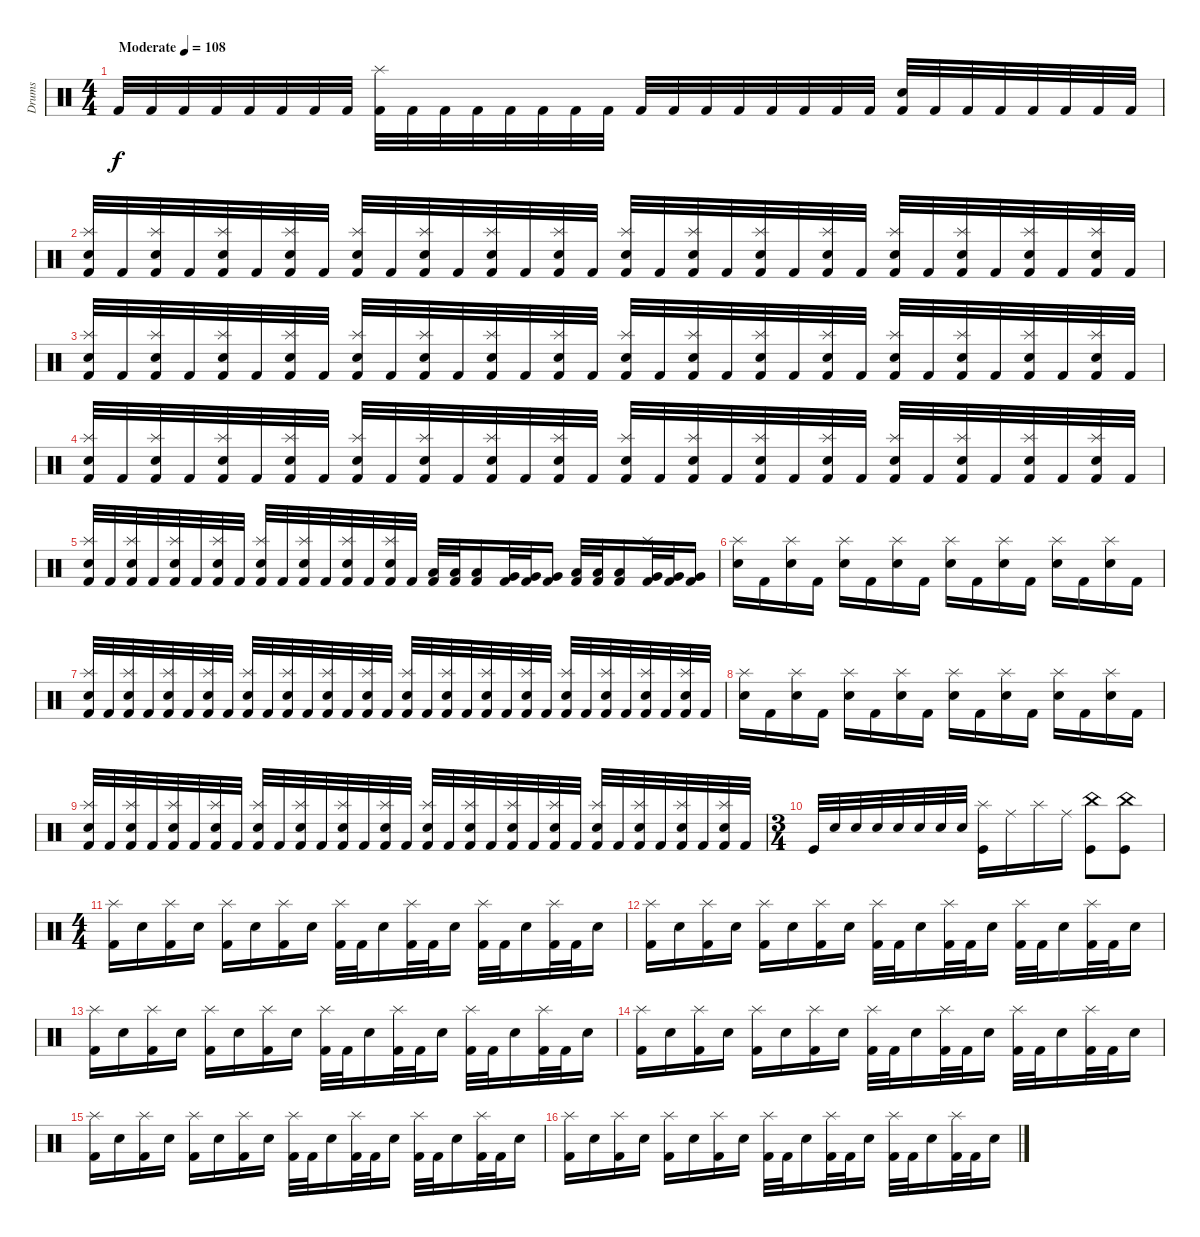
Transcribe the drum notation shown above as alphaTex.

\track ("Drums" "Drums") {instrument percussion}
\staff {score}
\articulation defaults
\ts (4 4)
\tempo (108 "Moderate")
\clef neutral
\ks c "Kick (hit) 2".32{dy f} "Kick (hit) 2".32 "Kick (hit) 2".32 "Kick (hit) 2".32 "Kick (hit) 2".32 "Kick (hit) 2".32 "Kick (hit) 2".32 "Kick (hit) 2".32
("Splash (hit)" "Kick (hit) 2").32 "Kick (hit) 2".32 "Kick (hit) 2".32 "Kick (hit) 2".32 "Kick (hit) 2".32 "Kick (hit) 2".32 "Kick (hit) 2".32 "Kick (hit) 2".32 "Kick (hit) 2".32 "Kick (hit) 2".32 "Kick (hit) 2".32 "Kick (hit) 2".32 "Kick (hit) 2".32 "Kick (hit) 2".32 "Kick (hit) 2".32 "Kick (hit) 2".32 ("Snare (hit) 2" "Kick (hit) 2").32 "Kick (hit) 2".32 "Kick (hit) 2".32 "Kick (hit) 2".32 "Kick (hit) 2".32 "Kick (hit) 2".32 "Kick (hit) 2".32 "Kick (hit) 2".32 |
("Splash (hit)" "Snare (hit) 2" "Kick (hit) 2").32 "Kick (hit) 2".32 ("Splash (hit)" "Snare (hit) 2" "Kick (hit) 2").32 "Kick (hit) 2".32 ("Splash (hit)" "Snare (hit) 2" "Kick (hit) 2").32 "Kick (hit) 2".32 ("Splash (hit)" "Snare (hit) 2" "Kick (hit) 2").32 "Kick (hit) 2".32 ("Splash (hit)" "Snare (hit) 2" "Kick (hit) 2").32 "Kick (hit) 2".32 ("Splash (hit)" "Snare (hit) 2" "Kick (hit) 2").32 "Kick (hit) 2".32 ("Splash (hit)" "Snare (hit) 2" "Kick (hit) 2").32 "Kick (hit) 2".32 ("Splash (hit)" "Snare (hit) 2" "Kick (hit) 2").32 "Kick (hit) 2".32 ("Splash (hit)" "Snare (hit) 2" "Kick (hit) 2").32 "Kick (hit) 2".32 ("Splash (hit)" "Snare (hit) 2" "Kick (hit) 2").32 "Kick (hit) 2".32 ("Splash (hit)" "Snare (hit) 2" "Kick (hit) 2").32 "Kick (hit) 2".32 ("Splash (hit)" "Snare (hit) 2" "Kick (hit) 2").32 "Kick (hit) 2".32 ("Splash (hit)" "Snare (hit) 2" "Kick (hit) 2").32 "Kick (hit) 2".32 ("Splash (hit)" "Snare (hit) 2" "Kick (hit) 2").32 "Kick (hit) 2".32 ("Splash (hit)" "Snare (hit) 2" "Kick (hit) 2").32 "Kick (hit) 2".32 ("Splash (hit)" "Snare (hit) 2" "Kick (hit) 2").32 "Kick (hit) 2".32 |
("Splash (hit)" "Snare (hit) 2" "Kick (hit) 2").32 "Kick (hit) 2".32 ("Splash (hit)" "Snare (hit) 2" "Kick (hit) 2").32 "Kick (hit) 2".32 ("Splash (hit)" "Snare (hit) 2" "Kick (hit) 2").32 "Kick (hit) 2".32 ("Splash (hit)" "Snare (hit) 2" "Kick (hit) 2").32 "Kick (hit) 2".32 ("Splash (hit)" "Snare (hit) 2" "Kick (hit) 2").32 "Kick (hit) 2".32 ("Splash (hit)" "Snare (hit) 2" "Kick (hit) 2").32 "Kick (hit) 2".32 ("Splash (hit)" "Snare (hit) 2" "Kick (hit) 2").32 "Kick (hit) 2".32 ("Splash (hit)" "Snare (hit) 2" "Kick (hit) 2").32 "Kick (hit) 2".32 ("Splash (hit)" "Snare (hit) 2" "Kick (hit) 2").32 "Kick (hit) 2".32 ("Splash (hit)" "Snare (hit) 2" "Kick (hit) 2").32 "Kick (hit) 2".32 ("Splash (hit)" "Snare (hit) 2" "Kick (hit) 2").32 "Kick (hit) 2".32 ("Splash (hit)" "Snare (hit) 2" "Kick (hit) 2").32 "Kick (hit) 2".32 ("Splash (hit)" "Snare (hit) 2" "Kick (hit) 2").32 "Kick (hit) 2".32 ("Splash (hit)" "Snare (hit) 2" "Kick (hit) 2").32 "Kick (hit) 2".32 ("Splash (hit)" "Snare (hit) 2" "Kick (hit) 2").32 "Kick (hit) 2".32 ("Splash (hit)" "Snare (hit) 2" "Kick (hit) 2").32 "Kick (hit) 2".32 |
("Splash (hit)" "Snare (hit) 2" "Kick (hit) 2").32 "Kick (hit) 2".32 ("Splash (hit)" "Snare (hit) 2" "Kick (hit) 2").32 "Kick (hit) 2".32 ("Splash (hit)" "Snare (hit) 2" "Kick (hit) 2").32 "Kick (hit) 2".32 ("Splash (hit)" "Snare (hit) 2" "Kick (hit) 2").32 "Kick (hit) 2".32 ("Splash (hit)" "Snare (hit) 2" "Kick (hit) 2").32 "Kick (hit) 2".32 ("Splash (hit)" "Snare (hit) 2" "Kick (hit) 2").32 "Kick (hit) 2".32 ("Splash (hit)" "Snare (hit) 2" "Kick (hit) 2").32 "Kick (hit) 2".32 ("Splash (hit)" "Snare (hit) 2" "Kick (hit) 2").32 "Kick (hit) 2".32 ("Splash (hit)" "Snare (hit) 2" "Kick (hit) 2").32 "Kick (hit) 2".32 ("Splash (hit)" "Snare (hit) 2" "Kick (hit) 2").32 "Kick (hit) 2".32 ("Splash (hit)" "Snare (hit) 2" "Kick (hit) 2").32 "Kick (hit) 2".32 ("Splash (hit)" "Snare (hit) 2" "Kick (hit) 2").32 "Kick (hit) 2".32 ("Splash (hit)" "Snare (hit) 2" "Kick (hit) 2").32 "Kick (hit) 2".32 ("Splash (hit)" "Snare (hit) 2" "Kick (hit) 2").32 "Kick (hit) 2".32 ("Splash (hit)" "Snare (hit) 2" "Kick (hit) 2").32 "Kick (hit) 2".32 ("Splash (hit)" "Snare (hit) 2" "Kick (hit) 2").32 "Kick (hit) 2".32 |
("Splash (hit)" "Snare (hit) 2" "Kick (hit) 2").32 "Kick (hit) 2".32 ("Splash (hit)" "Snare (hit) 2" "Kick (hit) 2").32 "Kick (hit) 2".32 ("Splash (hit)" "Snare (hit) 2" "Kick (hit) 2").32 "Kick (hit) 2".32 ("Splash (hit)" "Snare (hit) 2" "Kick (hit) 2").32 "Kick (hit) 2".32 ("Splash (hit)" "Snare (hit) 2" "Kick (hit) 2").32 "Kick (hit) 2".32 ("Splash (hit)" "Snare (hit) 2" "Kick (hit) 2").32 "Kick (hit) 2".32 ("Splash (hit)" "Snare (hit) 2" "Kick (hit) 2").32 "Kick (hit) 2".32 ("Splash (hit)" "Snare (hit) 2" "Kick (hit) 2").32 "Kick (hit) 2".32 ("Low Tom (hit)" "Kick (hit) 2").32 ("Low Tom (hit)" "Kick (hit) 2").32 ("Low Tom (hit)" "Kick (hit) 2").16 ("Very Low Tom (hit)" "Kick (hit) 2").32 ("Very Low Tom (hit)" "Kick (hit) 2").32 ("Very Low Tom (hit)" "Kick (hit) 2").16 ("Low Floor Tom (hit)" "Kick (hit) 2").32 ("Low Floor Tom (hit)" "Kick (hit) 2").32 ("Low Floor Tom (hit)" "Kick (hit) 2").16 ("Splash (hit)" "Very Low Tom (hit)" "Kick (hit) 2").32 ("Very Low Tom (hit)" "Kick (hit) 2").32 ("Very Low Tom (hit)" "Kick (hit) 2").16 |
("Splash (hit)" "Snare (hit) 2").16 "Kick (hit) 2".16 ("Splash (hit)" "Snare (hit) 2").16 "Kick (hit) 2".16 ("Splash (hit)" "Snare (hit) 2").16 "Kick (hit) 2".16 ("Splash (hit)" "Snare (hit) 2").16 "Kick (hit) 2".16 ("Splash (hit)" "Snare (hit) 2").16 "Kick (hit) 2".16 ("Splash (hit)" "Snare (hit) 2").16 "Kick (hit) 2".16 ("Splash (hit)" "Snare (hit) 2").16 "Kick (hit) 2".16 ("Splash (hit)" "Snare (hit) 2").16 "Kick (hit) 2".16 |
("Splash (hit)" "Snare (hit) 2" "Kick (hit) 2").32 "Kick (hit) 2".32 ("Splash (hit)" "Snare (hit) 2" "Kick (hit) 2").32 "Kick (hit) 2".32 ("Splash (hit)" "Snare (hit) 2" "Kick (hit) 2").32 "Kick (hit) 2".32 ("Splash (hit)" "Snare (hit) 2" "Kick (hit) 2").32 "Kick (hit) 2".32 ("Splash (hit)" "Snare (hit) 2" "Kick (hit) 2").32 "Kick (hit) 2".32 ("Splash (hit)" "Snare (hit) 2" "Kick (hit) 2").32 "Kick (hit) 2".32 ("Splash (hit)" "Snare (hit) 2" "Kick (hit) 2").32 "Kick (hit) 2".32 ("Splash (hit)" "Snare (hit) 2" "Kick (hit) 2").32 "Kick (hit) 2".32 ("Splash (hit)" "Snare (hit) 2" "Kick (hit) 2").32 "Kick (hit) 2".32 ("Splash (hit)" "Snare (hit) 2" "Kick (hit) 2").32 "Kick (hit) 2".32 ("Splash (hit)" "Snare (hit) 2" "Kick (hit) 2").32 "Kick (hit) 2".32 ("Splash (hit)" "Snare (hit) 2" "Kick (hit) 2").32 "Kick (hit) 2".32 ("Splash (hit)" "Snare (hit) 2" "Kick (hit) 2").32 "Kick (hit) 2".32 ("Splash (hit)" "Snare (hit) 2" "Kick (hit) 2").32 "Kick (hit) 2".32 ("Splash (hit)" "Snare (hit) 2" "Kick (hit) 2").32 "Kick (hit) 2".32 ("Splash (hit)" "Snare (hit) 2" "Kick (hit) 2").32 "Kick (hit) 2".32 |
("Splash (hit)" "Snare (hit) 2").16 "Kick (hit) 2".16 ("Splash (hit)" "Snare (hit) 2").16 "Kick (hit) 2".16 ("Splash (hit)" "Snare (hit) 2").16 "Kick (hit) 2".16 ("Splash (hit)" "Snare (hit) 2").16 "Kick (hit) 2".16 ("Splash (hit)" "Snare (hit) 2").16 "Kick (hit) 2".16 ("Splash (hit)" "Snare (hit) 2").16 "Kick (hit) 2".16 ("Splash (hit)" "Snare (hit) 2").16 "Kick (hit) 2".16 ("Splash (hit)" "Snare (hit) 2").16 "Kick (hit) 2".16 |
("Splash (hit)" "Snare (hit) 2" "Kick (hit) 2").32 "Kick (hit) 2".32 ("Splash (hit)" "Snare (hit) 2" "Kick (hit) 2").32 "Kick (hit) 2".32 ("Splash (hit)" "Snare (hit) 2" "Kick (hit) 2").32 "Kick (hit) 2".32 ("Splash (hit)" "Snare (hit) 2" "Kick (hit) 2").32 "Kick (hit) 2".32 ("Splash (hit)" "Snare (hit) 2" "Kick (hit) 2").32 "Kick (hit) 2".32 ("Splash (hit)" "Snare (hit) 2" "Kick (hit) 2").32 "Kick (hit) 2".32 ("Splash (hit)" "Snare (hit) 2" "Kick (hit) 2").32 "Kick (hit) 2".32 ("Splash (hit)" "Snare (hit) 2" "Kick (hit) 2").32 "Kick (hit) 2".32 ("Splash (hit)" "Snare (hit) 2" "Kick (hit) 2").32 "Kick (hit) 2".32 ("Splash (hit)" "Snare (hit) 2" "Kick (hit) 2").32 "Kick (hit) 2".32 ("Splash (hit)" "Snare (hit) 2" "Kick (hit) 2").32 "Kick (hit) 2".32 ("Splash (hit)" "Snare (hit) 2" "Kick (hit) 2").32 "Kick (hit) 2".32 ("Splash (hit)" "Snare (hit) 2" "Kick (hit) 2").32 "Kick (hit) 2".32 ("Splash (hit)" "Snare (hit) 2" "Kick (hit) 2").32 "Kick (hit) 2".32 ("Splash (hit)" "Snare (hit) 2" "Kick (hit) 2").32 "Kick (hit) 2".32 ("Splash (hit)" "Snare (hit) 2" "Kick (hit) 2").32 "Kick (hit) 2".32 |
\ts (3 4)
"Kick (hit)".32 "Snare (hit) 2".32 "Snare (hit) 2".32 "Snare (hit) 2".32 "Snare (hit) 2".32 "Snare (hit) 2".32 "Snare (hit) 2".32 "Snare (hit) 2".32 ("Splash (hit)" "Kick (hit)").16 "Ride (middle)".16 "Splash (hit)".16 "Ride (middle)".16 ("China (hit)" "Kick (hit)").8 ("China (hit)" "Kick (hit)").8 |
\ts (4 4)
("Splash (hit)" "Kick (hit) 2").16 "Snare (hit) 2".16 ("Splash (hit)" "Kick (hit) 2").16 "Snare (hit) 2".16 ("Splash (hit)" "Kick (hit) 2").16 "Snare (hit) 2".16 ("Splash (hit)" "Kick (hit) 2").16 "Snare (hit) 2".16 ("Splash (hit)" "Kick (hit) 2").32 "Kick (hit) 2".32 "Snare (hit) 2".16 ("Splash (hit)" "Kick (hit) 2").32 "Kick (hit) 2".32 "Snare (hit) 2".16 ("Splash (hit)" "Kick (hit) 2").32 "Kick (hit) 2".32 "Snare (hit) 2".16 ("Splash (hit)" "Kick (hit) 2").32 "Kick (hit) 2".32 "Snare (hit) 2".16 |
("Splash (hit)" "Kick (hit) 2").16 "Snare (hit) 2".16 ("Splash (hit)" "Kick (hit) 2").16 "Snare (hit) 2".16 ("Splash (hit)" "Kick (hit) 2").16 "Snare (hit) 2".16 ("Splash (hit)" "Kick (hit) 2").16 "Snare (hit) 2".16 ("Splash (hit)" "Kick (hit) 2").32 "Kick (hit) 2".32 "Snare (hit) 2".16 ("Splash (hit)" "Kick (hit) 2").32 "Kick (hit) 2".32 "Snare (hit) 2".16 ("Splash (hit)" "Kick (hit) 2").32 "Kick (hit) 2".32 "Snare (hit) 2".16 ("Splash (hit)" "Kick (hit) 2").32 "Kick (hit) 2".32 "Snare (hit) 2".16 |
("Splash (hit)" "Kick (hit) 2").16 "Snare (hit) 2".16 ("Splash (hit)" "Kick (hit) 2").16 "Snare (hit) 2".16 ("Splash (hit)" "Kick (hit) 2").16 "Snare (hit) 2".16 ("Splash (hit)" "Kick (hit) 2").16 "Snare (hit) 2".16 ("Splash (hit)" "Kick (hit) 2").32 "Kick (hit) 2".32 "Snare (hit) 2".16 ("Splash (hit)" "Kick (hit) 2").32 "Kick (hit) 2".32 "Snare (hit) 2".16 ("Splash (hit)" "Kick (hit) 2").32 "Kick (hit) 2".32 "Snare (hit) 2".16 ("Splash (hit)" "Kick (hit) 2").32 "Kick (hit) 2".32 "Snare (hit) 2".16 |
("Splash (hit)" "Kick (hit) 2").16 "Snare (hit) 2".16 ("Splash (hit)" "Kick (hit) 2").16 "Snare (hit) 2".16 ("Splash (hit)" "Kick (hit) 2").16 "Snare (hit) 2".16 ("Splash (hit)" "Kick (hit) 2").16 "Snare (hit) 2".16 ("Splash (hit)" "Kick (hit) 2").32 "Kick (hit) 2".32 "Snare (hit) 2".16 ("Splash (hit)" "Kick (hit) 2").32 "Kick (hit) 2".32 "Snare (hit) 2".16 ("Splash (hit)" "Kick (hit) 2").32 "Kick (hit) 2".32 "Snare (hit) 2".16 ("Splash (hit)" "Kick (hit) 2").32 "Kick (hit) 2".32 "Snare (hit) 2".16 |
("Splash (hit)" "Kick (hit) 2").16 "Snare (hit) 2".16 ("Splash (hit)" "Kick (hit) 2").16 "Snare (hit) 2".16 ("Splash (hit)" "Kick (hit) 2").16 "Snare (hit) 2".16 ("Splash (hit)" "Kick (hit) 2").16 "Snare (hit) 2".16 ("Splash (hit)" "Kick (hit) 2").32 "Kick (hit) 2".32 "Snare (hit) 2".16 ("Splash (hit)" "Kick (hit) 2").32 "Kick (hit) 2".32 "Snare (hit) 2".16 ("Splash (hit)" "Kick (hit) 2").32 "Kick (hit) 2".32 "Snare (hit) 2".16 ("Splash (hit)" "Kick (hit) 2").32 "Kick (hit) 2".32 "Snare (hit) 2".16 |
("Splash (hit)" "Kick (hit) 2").16 "Snare (hit) 2".16 ("Splash (hit)" "Kick (hit) 2").16 "Snare (hit) 2".16 ("Splash (hit)" "Kick (hit) 2").16 "Snare (hit) 2".16 ("Splash (hit)" "Kick (hit) 2").16 "Snare (hit) 2".16 ("Splash (hit)" "Kick (hit) 2").32 "Kick (hit) 2".32 "Snare (hit) 2".16 ("Splash (hit)" "Kick (hit) 2").32 "Kick (hit) 2".32 "Snare (hit) 2".16 ("Splash (hit)" "Kick (hit) 2").32 "Kick (hit) 2".32 "Snare (hit) 2".16 ("Splash (hit)" "Kick (hit) 2").32 "Kick (hit) 2".32 "Snare (hit) 2".16
